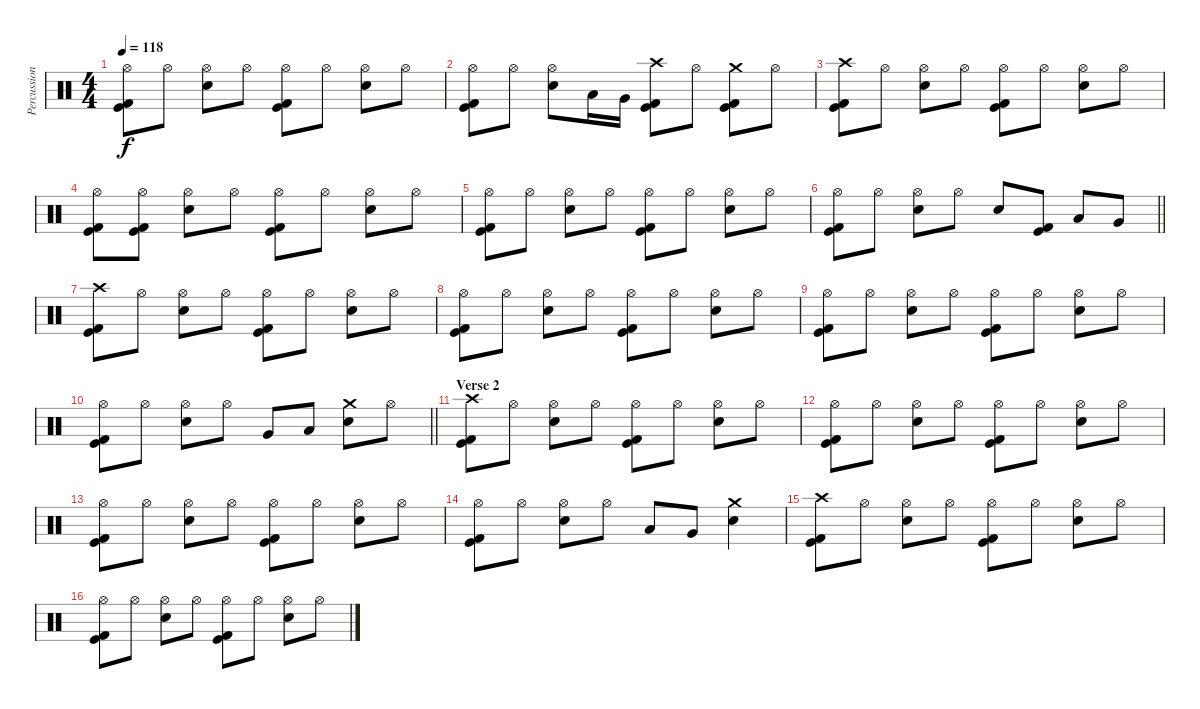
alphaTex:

\track ("Percussion" "Percussion") {instrument percussion}
\staff {score}
\articulation defaults
\ts (4 4)
\tempo 118
\clef neutral
\ks c
("Hi-Hat (open)" "Kick (hit)" "Kick (hit) 2").8{dy f} "Hi-Hat (open)".8 ("Hi-Hat (open)" "Electric Snare (hit)").8 "Hi-Hat (open)".8 ("Hi-Hat (open)" "Kick (hit)" "Kick (hit) 2").8 "Hi-Hat (open)".8 ("Hi-Hat (open)" "Electric Snare (hit)").8 "Hi-Hat (open)".8 |
("Hi-Hat (open)" "Kick (hit)" "Kick (hit) 2").8 "Hi-Hat (open)".8 ("Hi-Hat (open)" "Electric Snare (hit)").8 "Low Tom (hit)".16 "Very Low Tom (hit)".16 ("Crash high (hit)" "Kick (hit)" "Kick (hit) 2").8 "Hi-Hat (open)".8 ("Crash medium (hit)" "Kick (hit)" "Kick (hit) 2").8 "Hi-Hat (open)".8 |
("Crash high (hit)" "Kick (hit)" "Kick (hit) 2").8 "Hi-Hat (open)".8 ("Hi-Hat (open)" "Electric Snare (hit)").8 "Hi-Hat (open)".8 ("Hi-Hat (open)" "Kick (hit)" "Kick (hit) 2").8 "Hi-Hat (open)".8 ("Hi-Hat (open)" "Electric Snare (hit)").8 "Hi-Hat (open)".8 |
("Hi-Hat (open)" "Kick (hit)" "Kick (hit) 2").8 ("Hi-Hat (open)" "Kick (hit)" "Kick (hit) 2").8 ("Hi-Hat (open)" "Electric Snare (hit)").8 "Hi-Hat (open)".8 ("Hi-Hat (open)" "Kick (hit)" "Kick (hit) 2").8 "Hi-Hat (open)".8 ("Hi-Hat (open)" "Electric Snare (hit)").8 "Hi-Hat (open)".8 |
("Hi-Hat (open)" "Kick (hit)" "Kick (hit) 2").8 "Hi-Hat (open)".8 ("Hi-Hat (open)" "Electric Snare (hit)").8 "Hi-Hat (open)".8 ("Hi-Hat (open)" "Kick (hit)" "Kick (hit) 2").8 "Hi-Hat (open)".8 ("Hi-Hat (open)" "Electric Snare (hit)").8 "Hi-Hat (open)".8 |
\barLineRight lightlight
("Hi-Hat (open)" "Kick (hit)" "Kick (hit) 2").8 "Hi-Hat (open)".8 ("Hi-Hat (open)" "Electric Snare (hit)").8 "Hi-Hat (open)".8 "Electric Snare (hit)".8 ("Kick (hit)" "Kick (hit) 2").8 "Low Tom (hit)".8 "Very Low Tom (hit)".8 |
\section ("" "")
("Crash high (hit)" "Kick (hit)" "Kick (hit) 2").8 "Hi-Hat (open)".8 ("Hi-Hat (open)" "Electric Snare (hit)").8 "Hi-Hat (open)".8 ("Hi-Hat (open)" "Kick (hit)" "Kick (hit) 2").8 "Hi-Hat (open)".8 ("Hi-Hat (open)" "Electric Snare (hit)").8 "Hi-Hat (open)".8 |
("Hi-Hat (open)" "Kick (hit)" "Kick (hit) 2").8 "Hi-Hat (open)".8 ("Hi-Hat (open)" "Electric Snare (hit)").8 "Hi-Hat (open)".8 ("Hi-Hat (open)" "Kick (hit)" "Kick (hit) 2").8 "Hi-Hat (open)".8 ("Hi-Hat (open)" "Electric Snare (hit)").8 "Hi-Hat (open)".8 |
("Hi-Hat (open)" "Kick (hit)" "Kick (hit) 2").8 "Hi-Hat (open)".8 ("Hi-Hat (open)" "Electric Snare (hit)").8 "Hi-Hat (open)".8 ("Hi-Hat (open)" "Kick (hit)" "Kick (hit) 2").8 "Hi-Hat (open)".8 ("Hi-Hat (open)" "Electric Snare (hit)").8 "Hi-Hat (open)".8 |
\barLineRight lightlight
("Hi-Hat (open)" "Kick (hit)" "Kick (hit) 2").8 "Hi-Hat (open)".8 ("Hi-Hat (open)" "Electric Snare (hit)").8 "Hi-Hat (open)".8 "Very Low Tom (hit)".8 "Low Floor Tom (hit)".8 ("Crash medium (hit)" "Electric Snare (hit)").8 "Hi-Hat (open)".8 |
\section ("" "Verse 2")
("Crash high (hit)" "Kick (hit)" "Kick (hit) 2").8 "Hi-Hat (open)".8 ("Hi-Hat (open)" "Electric Snare (hit)").8 "Hi-Hat (open)".8 ("Hi-Hat (open)" "Kick (hit)" "Kick (hit) 2").8 "Hi-Hat (open)".8 ("Hi-Hat (open)" "Electric Snare (hit)").8 "Hi-Hat (open)".8 |
("Hi-Hat (open)" "Kick (hit)" "Kick (hit) 2").8 "Hi-Hat (open)".8 ("Hi-Hat (open)" "Electric Snare (hit)").8 "Hi-Hat (open)".8 ("Hi-Hat (open)" "Kick (hit)" "Kick (hit) 2").8 "Hi-Hat (open)".8 ("Hi-Hat (open)" "Electric Snare (hit)").8 "Hi-Hat (open)".8 |
("Hi-Hat (open)" "Kick (hit)" "Kick (hit) 2").8 "Hi-Hat (open)".8 ("Hi-Hat (open)" "Electric Snare (hit)").8 "Hi-Hat (open)".8 ("Hi-Hat (open)" "Kick (hit)" "Kick (hit) 2").8 "Hi-Hat (open)".8 ("Hi-Hat (open)" "Electric Snare (hit)").8 "Hi-Hat (open)".8 |
("Hi-Hat (open)" "Kick (hit)" "Kick (hit) 2").8 "Hi-Hat (open)".8 ("Hi-Hat (open)" "Electric Snare (hit)").8 "Hi-Hat (open)".8 "Low Tom (hit)".8 "Very Low Tom (hit)".8 ("Crash medium (hit)" "Electric Snare (hit)").4 |
("Crash high (hit)" "Kick (hit)" "Kick (hit) 2").8 "Hi-Hat (open)".8 ("Hi-Hat (open)" "Electric Snare (hit)").8 "Hi-Hat (open)".8 ("Hi-Hat (open)" "Kick (hit)" "Kick (hit) 2").8 "Hi-Hat (open)".8 ("Hi-Hat (open)" "Electric Snare (hit)").8 "Hi-Hat (open)".8 |
("Hi-Hat (open)" "Kick (hit)" "Kick (hit) 2").8 "Hi-Hat (open)".8 ("Hi-Hat (open)" "Electric Snare (hit)").8 "Hi-Hat (open)".8 ("Hi-Hat (open)" "Kick (hit)" "Kick (hit) 2").8 "Hi-Hat (open)".8 ("Hi-Hat (open)" "Electric Snare (hit)").8 "Hi-Hat (open)".8
